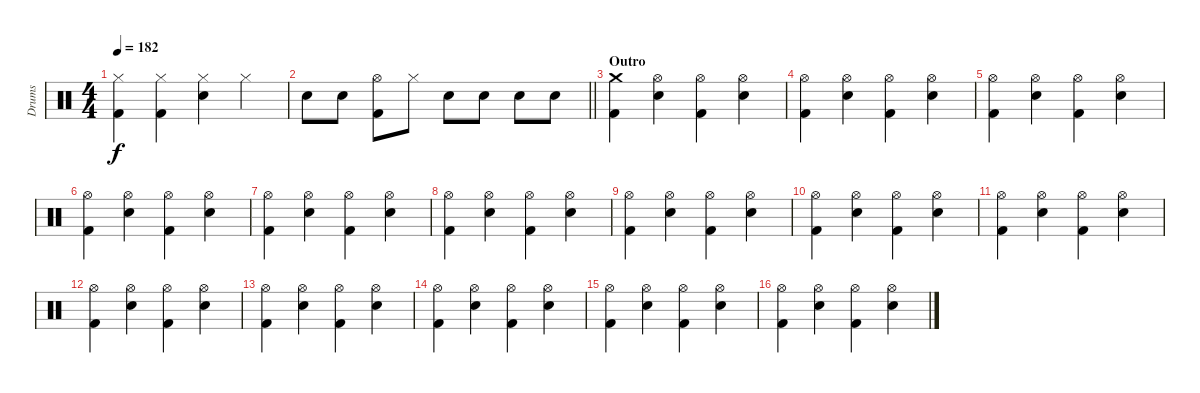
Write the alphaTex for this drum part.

\track ("Drums" "Drums") {instrument percussion}
\staff {score}
\articulation defaults
\ts (4 4)
\tempo 182
\clef neutral
\ks c
("Hi-Hat (closed)" "Kick (hit) 2").4{dy f} ("Hi-Hat (closed)" "Kick (hit) 2").4 ("Hi-Hat (closed)" "Snare (hit) 2").4 "Hi-Hat (closed)".4 |
\barLineRight lightlight "Snare (hit) 2".8 "Snare (hit) 2".8
("Hi-Hat (open)" "Kick (hit) 2").8 "Hi-Hat (closed)".8 "Snare (hit) 2".8 "Snare (hit) 2".8 "Snare (hit) 2".8 "Snare (hit) 2".8 |
\section ("" "Outro")
("Crash medium (hit)" "Kick (hit) 2").4 ("Hi-Hat (open)" "Snare (hit) 2").4 ("Hi-Hat (open)" "Kick (hit) 2").4 ("Hi-Hat (open)" "Snare (hit) 2").4 |
("Hi-Hat (open)" "Kick (hit) 2").4 ("Hi-Hat (open)" "Snare (hit) 2").4 ("Hi-Hat (open)" "Kick (hit) 2").4 ("Hi-Hat (open)" "Snare (hit) 2").4 |
("Hi-Hat (open)" "Kick (hit) 2").4 ("Hi-Hat (open)" "Snare (hit) 2").4 ("Hi-Hat (open)" "Kick (hit) 2").4 ("Hi-Hat (open)" "Snare (hit) 2").4 |
("Hi-Hat (open)" "Kick (hit) 2").4 ("Hi-Hat (open)" "Snare (hit) 2").4 ("Hi-Hat (open)" "Kick (hit) 2").4 ("Hi-Hat (open)" "Snare (hit) 2").4 |
("Hi-Hat (open)" "Kick (hit) 2").4 ("Hi-Hat (open)" "Snare (hit) 2").4 ("Hi-Hat (open)" "Kick (hit) 2").4 ("Hi-Hat (open)" "Snare (hit) 2").4 |
("Hi-Hat (open)" "Kick (hit) 2").4 ("Hi-Hat (open)" "Snare (hit) 2").4 ("Hi-Hat (open)" "Kick (hit) 2").4 ("Hi-Hat (open)" "Snare (hit) 2").4 |
("Hi-Hat (open)" "Kick (hit) 2").4 ("Hi-Hat (open)" "Snare (hit) 2").4 ("Hi-Hat (open)" "Kick (hit) 2").4 ("Hi-Hat (open)" "Snare (hit) 2").4 |
("Hi-Hat (open)" "Kick (hit) 2").4 ("Hi-Hat (open)" "Snare (hit) 2").4 ("Hi-Hat (open)" "Kick (hit) 2").4 ("Hi-Hat (open)" "Snare (hit) 2").4 |
("Hi-Hat (open)" "Kick (hit) 2").4 ("Hi-Hat (open)" "Snare (hit) 2").4 ("Hi-Hat (open)" "Kick (hit) 2").4 ("Hi-Hat (open)" "Snare (hit) 2").4 |
("Hi-Hat (open)" "Kick (hit) 2").4 ("Hi-Hat (open)" "Snare (hit) 2").4 ("Hi-Hat (open)" "Kick (hit) 2").4 ("Hi-Hat (open)" "Snare (hit) 2").4 |
("Hi-Hat (open)" "Kick (hit) 2").4 ("Hi-Hat (open)" "Snare (hit) 2").4 ("Hi-Hat (open)" "Kick (hit) 2").4 ("Hi-Hat (open)" "Snare (hit) 2").4 |
("Hi-Hat (open)" "Kick (hit) 2").4 ("Hi-Hat (open)" "Snare (hit) 2").4 ("Hi-Hat (open)" "Kick (hit) 2").4 ("Hi-Hat (open)" "Snare (hit) 2").4 |
("Hi-Hat (open)" "Kick (hit) 2").4 ("Hi-Hat (open)" "Snare (hit) 2").4 ("Hi-Hat (open)" "Kick (hit) 2").4 ("Hi-Hat (open)" "Snare (hit) 2").4 |
("Hi-Hat (open)" "Kick (hit) 2").4 ("Hi-Hat (open)" "Snare (hit) 2").4 ("Hi-Hat (open)" "Kick (hit) 2").4 ("Hi-Hat (open)" "Snare (hit) 2").4
